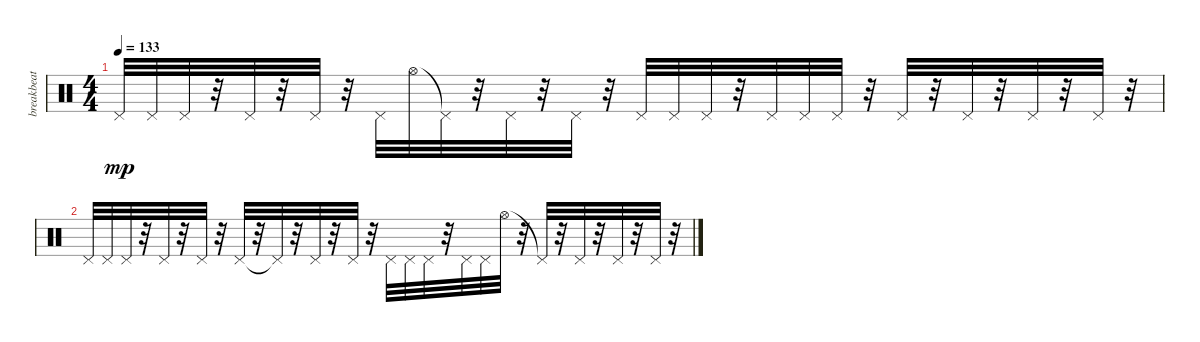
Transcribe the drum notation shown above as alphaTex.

\track ("breakbeat" "breakbeat") {instrument percussion}
\staff {score}
\articulation defaults
\ts (4 4)
\tempo 133
\clef neutral
\ks c "Pedal Hi-Hat (hit)".32{dy mp} "Pedal Hi-Hat (hit)".32 "Pedal Hi-Hat (hit)".32
r.32 "Pedal Hi-Hat (hit)".32 r.32 "Pedal Hi-Hat (hit)".32 r.32 "Pedal Hi-Hat (hit)".32 "Hi-Hat (open)".32 "Pedal Hi-Hat (hit)"{t}.32 r.32 "Pedal Hi-Hat (hit)".32 r.32 "Pedal Hi-Hat (hit)".32 r.32 "Pedal Hi-Hat (hit)".32 "Pedal Hi-Hat (hit)".32 "Pedal Hi-Hat (hit)".32 r.32 "Pedal Hi-Hat (hit)".32 "Pedal Hi-Hat (hit)".32 "Pedal Hi-Hat (hit)".32 r.32 "Pedal Hi-Hat (hit)".32 r.32 "Pedal Hi-Hat (hit)".32 r.32 "Pedal Hi-Hat (hit)".32 r.32 "Pedal Hi-Hat (hit)".32 r.32 |
"Pedal Hi-Hat (hit)".32 "Pedal Hi-Hat (hit)".32 "Pedal Hi-Hat (hit)".32 r.32 "Pedal Hi-Hat (hit)".32 r.32 "Pedal Hi-Hat (hit)".32 r.32 "Pedal Hi-Hat (hit)".32 r.32 "Pedal Hi-Hat (hit)"{t}.32 r.32 "Pedal Hi-Hat (hit)".32 r.32 "Pedal Hi-Hat (hit)".32 r.32 "Pedal Hi-Hat (hit)".32 "Pedal Hi-Hat (hit)".32 "Pedal Hi-Hat (hit)".32 r.32 "Pedal Hi-Hat (hit)".32 "Pedal Hi-Hat (hit)".32 "Hi-Hat (open)".32 r.32 "Pedal Hi-Hat (hit)"{t}.32 r.32 "Pedal Hi-Hat (hit)".32 r.32 "Pedal Hi-Hat (hit)".32 r.32 "Pedal Hi-Hat (hit)".32 r.32
